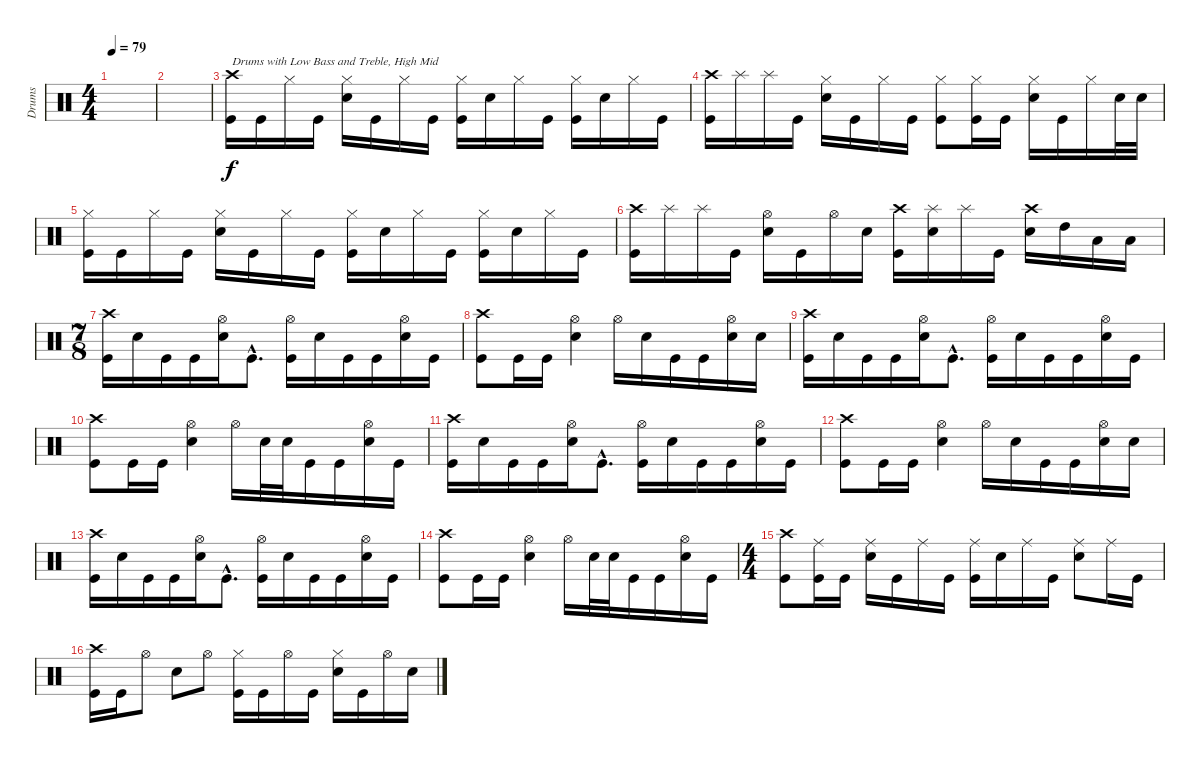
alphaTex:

\track ("Drums" "Drums") {instrument percussion}
\staff {score}
\articulation defaults
\ts (4 4)
\tempo 79
\clef neutral
\ks c
|
|
("Crash high (hit)" "Kick (hit)").16{txt "Drums with Low Bass and Treble, High Mid" volume 8} "Kick (hit)".16 "Hi-Hat (closed)".16 "Kick (hit)".16 ("Hi-Hat (closed)" "Electric Snare (hit)").16 "Kick (hit)".16 "Hi-Hat (closed)".16 "Kick (hit)".16 ("Hi-Hat (closed)" "Kick (hit)").16 "Electric Snare (hit)".16 "Hi-Hat (closed)".16 "Kick (hit)".16 ("Hi-Hat (closed)" "Kick (hit)").16 "Electric Snare (hit)".16 "Hi-Hat (closed)".16 "Kick (hit)".16 |
("Crash high (hit)" "Kick (hit)").16 "Splash (hit)".16 "Splash (hit)".16 "Kick (hit)".16 ("Hi-Hat (closed)" "Electric Snare (hit)").16 "Kick (hit)".16 "Hi-Hat (closed)".16 "Kick (hit)".16 ("Hi-Hat (closed)" "Kick (hit)").8 ("Hi-Hat (closed)" "Kick (hit)").16 "Kick (hit)".16 ("Hi-Hat (closed)" "Electric Snare (hit)").16 "Kick (hit)".16 "Hi-Hat (closed)".16 "Electric Snare (hit)".32 "Electric Snare (hit)".32 |
("Hi-Hat (closed)" "Kick (hit)").16 "Kick (hit)".16 "Hi-Hat (closed)".16 "Kick (hit)".16 ("Hi-Hat (closed)" "Electric Snare (hit)").16 "Kick (hit)".16 "Hi-Hat (closed)".16 "Kick (hit)".16 ("Hi-Hat (closed)" "Kick (hit)").16 "Electric Snare (hit)".16 "Hi-Hat (closed)".16 "Kick (hit)".16 ("Hi-Hat (closed)" "Kick (hit)").16 "Electric Snare (hit)".16 "Hi-Hat (closed)".16 "Kick (hit)".16 |
("Crash high (hit)" "Kick (hit)").16{volume 12} "Splash (hit)".16 "Splash (hit)".16 "Kick (hit)".16 ("Hi-Hat (open)" "Electric Snare (hit)").16 "Kick (hit)".16 "Hi-Hat (open)".16 "Electric Snare (hit)".16 ("Crash high (hit)" "Kick (hit)").16 ("Splash (hit)" "Electric Snare (hit)").16 "Splash (hit)".16 "Kick (hit)".16 ("Crash high (hit)" "Electric Snare (hit)").16 "High Tom (hit)".16 "Low Tom (hit)".16 "Low Floor Tom (hit)".16 |
\ts (7 8)
("Crash high (hit)" "Kick (hit)").16 "Electric Snare (hit)".16 "Kick (hit)".16 "Kick (hit)".16 ("Hi-Hat (open)" "Electric Snare (hit)").16 "Kick (hit)"{hac}.8{d} ("Hi-Hat (open)" "Kick (hit)").16 "Electric Snare (hit)".16 "Kick (hit)".16 "Kick (hit)".16 ("Hi-Hat (open)" "Electric Snare (hit)").16 "Kick (hit)".16 |
("Crash high (hit)" "Kick (hit)").8 "Kick (hit)".16 "Kick (hit)".16 ("Hi-Hat (open)" "Electric Snare (hit)").4 "Hi-Hat (open)".16 "Electric Snare (hit)".16 "Kick (hit)".16 "Kick (hit)".16 ("Hi-Hat (open)" "Electric Snare (hit)").16 "Electric Snare (hit)".16 |
("Crash high (hit)" "Kick (hit)").16 "Electric Snare (hit)".16 "Kick (hit)".16 "Kick (hit)".16 ("Hi-Hat (open)" "Electric Snare (hit)").16 "Kick (hit)"{hac}.8{d} ("Hi-Hat (open)" "Kick (hit)").16 "Electric Snare (hit)".16 "Kick (hit)".16 "Kick (hit)".16 ("Hi-Hat (open)" "Electric Snare (hit)").16 "Kick (hit)".16 |
("Crash high (hit)" "Kick (hit)").8 "Kick (hit)".16 "Kick (hit)".16 ("Hi-Hat (open)" "Electric Snare (hit)").4 "Hi-Hat (open)".16 "Electric Snare (hit)".32 "Electric Snare (hit)".32 "Kick (hit)".16 "Kick (hit)".16 ("Hi-Hat (open)" "Electric Snare (hit)").16 "Kick (hit)".16 |
("Crash high (hit)" "Kick (hit)").16 "Electric Snare (hit)".16 "Kick (hit)".16 "Kick (hit)".16 ("Hi-Hat (open)" "Electric Snare (hit)").16 "Kick (hit)"{hac}.8{d} ("Hi-Hat (open)" "Kick (hit)").16 "Electric Snare (hit)".16 "Kick (hit)".16 "Kick (hit)".16 ("Hi-Hat (open)" "Electric Snare (hit)").16 "Kick (hit)".16 |
("Crash high (hit)" "Kick (hit)").8 "Kick (hit)".16 "Kick (hit)".16 ("Hi-Hat (open)" "Electric Snare (hit)").4 "Hi-Hat (open)".16 "Electric Snare (hit)".16 "Kick (hit)".16 "Kick (hit)".16 ("Hi-Hat (open)" "Electric Snare (hit)").16 "Electric Snare (hit)".16 |
("Crash high (hit)" "Kick (hit)").16 "Electric Snare (hit)".16 "Kick (hit)".16 "Kick (hit)".16 ("Hi-Hat (open)" "Electric Snare (hit)").16 "Kick (hit)"{hac}.8{d} ("Hi-Hat (open)" "Kick (hit)").16 "Electric Snare (hit)".16 "Kick (hit)".16 "Kick (hit)".16 ("Hi-Hat (open)" "Electric Snare (hit)").16 "Kick (hit)".16 |
("Crash high (hit)" "Kick (hit)").8 "Kick (hit)".16 "Kick (hit)".16 ("Hi-Hat (open)" "Electric Snare (hit)").4 "Hi-Hat (open)".16 "Electric Snare (hit)".32 "Electric Snare (hit)".32 "Kick (hit)".16 "Kick (hit)".16 ("Hi-Hat (open)" "Electric Snare (hit)").16 "Kick (hit)".16 |
\ts (4 4)
("Crash high (hit)" "Kick (hit)").8 ("Ride (middle)" "Kick (hit)").16 "Kick (hit)".16 ("Ride (middle)" "Electric Snare (hit)").16 "Kick (hit)".16 "Ride (middle)".16 "Kick (hit)".16 ("Ride (middle)" "Kick (hit)").16 "Electric Snare (hit)".16 "Ride (middle)".16 "Kick (hit)".16 ("Ride (middle)" "Electric Snare (hit)").8 "Ride (middle)".16 "Kick (hit)".16 |
("Crash high (hit)" "Kick (hit)").16 "Kick (hit)".16 "Hi-Hat (open)".8 "Electric Snare (hit)".8 "Hi-Hat (open)".8 ("Hi-Hat (closed)" "Kick (hit)").16 "Kick (hit)".16 "Hi-Hat (open)".16 "Kick (hit)".16 ("Hi-Hat (closed)" "Electric Snare (hit)").16 "Kick (hit)".16 "Hi-Hat (open)".16 "Electric Snare (hit)".16
